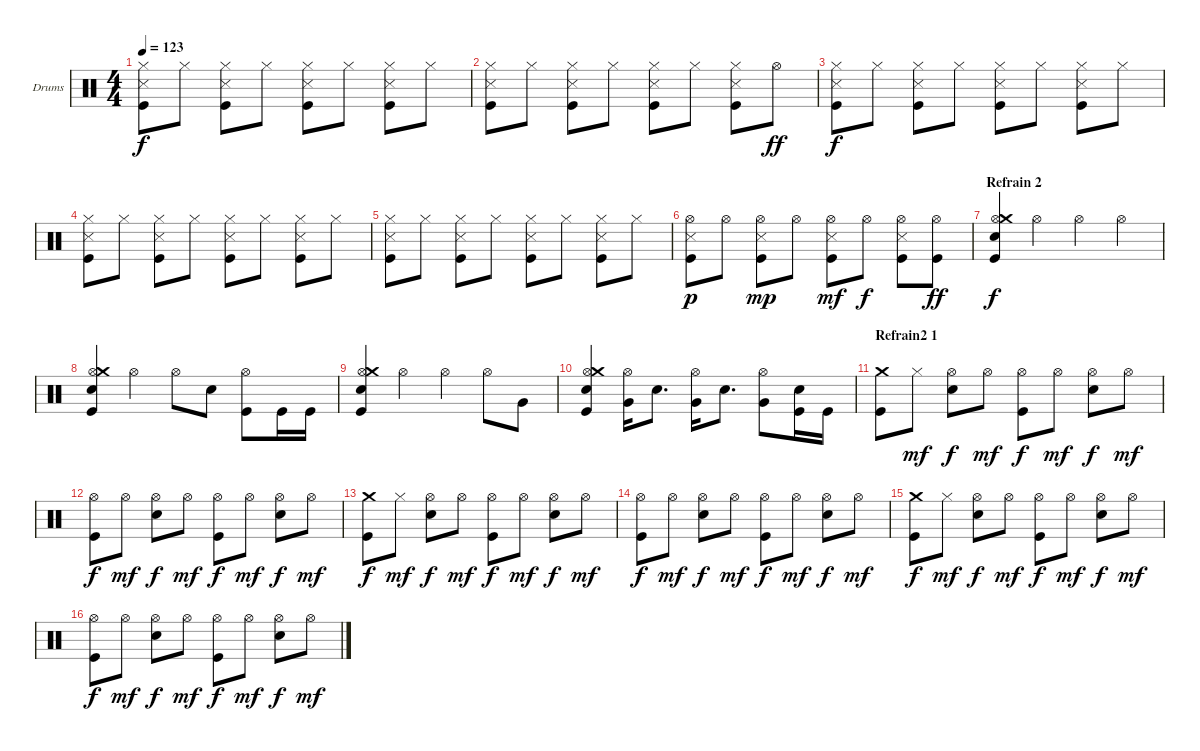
\bracketExtendMode groupsimilarinstruments
\firstSystemTrackNameOrientation horizontal
\otherSystemsTrackNameOrientation horizontal
\track ("Drumkit" "Drums") {instrument percussion}
\staff {score}
\articulation defaults
\ts (4 4)
\tempo 123
\clef neutral
\ks c
("Hi-Hat (closed)" "Snare (side stick) 3" "Kick (hit)").8{dy f} "Hi-Hat (closed)".8 ("Hi-Hat (closed)" "Snare (side stick) 3" "Kick (hit)").8 "Hi-Hat (closed)".8 ("Hi-Hat (closed)" "Snare (side stick) 3" "Kick (hit)").8 "Hi-Hat (closed)".8 ("Hi-Hat (closed)" "Snare (side stick) 3" "Kick (hit)").8 "Hi-Hat (closed)".8 |
("Hi-Hat (closed)" "Snare (side stick) 3" "Kick (hit)").8 "Hi-Hat (closed)".8 ("Hi-Hat (closed)" "Snare (side stick) 3" "Kick (hit)").8 "Hi-Hat (closed)".8 ("Hi-Hat (closed)" "Snare (side stick) 3" "Kick (hit)").8 "Hi-Hat (closed)".8 ("Hi-Hat (closed)" "Snare (side stick) 3" "Kick (hit)").8 "Hi-Hat (open)".8{dy ff} |
("Hi-Hat (closed)" "Snare (side stick) 3" "Kick (hit)").8{dy f} "Hi-Hat (closed)".8 ("Hi-Hat (closed)" "Snare (side stick) 3" "Kick (hit)").8 "Hi-Hat (closed)".8 ("Hi-Hat (closed)" "Snare (side stick) 3" "Kick (hit)").8 "Hi-Hat (closed)".8 ("Hi-Hat (closed)" "Snare (side stick) 3" "Kick (hit)").8 "Hi-Hat (closed)".8 |
("Hi-Hat (closed)" "Snare (side stick) 3" "Kick (hit)").8 "Hi-Hat (closed)".8 ("Hi-Hat (closed)" "Snare (side stick) 3" "Kick (hit)").8 "Hi-Hat (closed)".8 ("Hi-Hat (closed)" "Snare (side stick) 3" "Kick (hit)").8 "Hi-Hat (closed)".8 ("Hi-Hat (closed)" "Snare (side stick) 3" "Kick (hit)").8 "Hi-Hat (closed)".8 |
("Hi-Hat (closed)" "Snare (side stick) 3" "Kick (hit)").8 "Hi-Hat (closed)".8 ("Hi-Hat (closed)" "Snare (side stick) 3" "Kick (hit)").8 "Hi-Hat (closed)".8 ("Hi-Hat (closed)" "Snare (side stick) 3" "Kick (hit)").8 "Hi-Hat (closed)".8 ("Hi-Hat (closed)" "Snare (side stick) 3" "Kick (hit)").8 "Hi-Hat (closed)".8 |
("Hi-Hat (open)" "Snare (side stick) 3" "Kick (hit)").8{dy p} "Hi-Hat (open)".8 ("Hi-Hat (open)" "Snare (side stick) 3" "Kick (hit)").8{dy mp} "Hi-Hat (open)".8 ("Hi-Hat (open)" "Snare (side stick) 3" "Kick (hit)").8{dy mf} "Hi-Hat (open)".8{dy f} ("Hi-Hat (open)" "Snare (side stick) 3" "Kick (hit)").8 ("Hi-Hat (open)" "Kick (hit)").8{dy ff} |
\section ("" "Refrain 2")
("Hi-Hat (open)" "Crash medium (hit)" "Snare (hit) 2" "Kick (hit)").4{dy f} "Hi-Hat (open)".4 "Hi-Hat (open)".4 "Hi-Hat (open)".4 |
("Hi-Hat (open)" "Crash medium (hit)" "Snare (hit) 2" "Kick (hit)").4 "Hi-Hat (open)".4 "Hi-Hat (open)".8 "Snare (hit) 2".8 ("Hi-Hat (open)" "Kick (hit)").8 "Kick (hit)".16 "Kick (hit)".16 |
("Hi-Hat (open)" "Crash medium (hit)" "Snare (hit) 2" "Kick (hit)").4 "Hi-Hat (open)".4 "Hi-Hat (open)".4 "Hi-Hat (open)".8 "Very Low Tom (hit)".8 |
("Hi-Hat (open)" "Crash medium (hit)" "Snare (hit) 2" "Kick (hit)").4 ("Hi-Hat (open)" "Very Low Tom (hit)").16 "Snare (hit) 2".8{d} ("Hi-Hat (open)" "Very Low Tom (hit)").16 "Snare (hit) 2".8{d} ("Hi-Hat (open)" "Very Low Tom (hit)").8 ("Snare (hit) 2" "Kick (hit)").16 "Kick (hit)".16 |
\section ("" "Refrain2 1")
("Crash medium (hit)" "Kick (hit)").8 "Hi-Hat (closed)".8{dy mf} ("Hi-Hat (open)" "Snare (hit) 2").8{dy f} "Hi-Hat (open)".8{dy mf} ("Hi-Hat (open)" "Kick (hit)").8{dy f} "Hi-Hat (open)".8{dy mf} ("Hi-Hat (open)" "Snare (hit) 2").8{dy f} "Hi-Hat (open)".8{dy mf} |
("Hi-Hat (open)" "Kick (hit)").8{dy f} "Hi-Hat (open)".8{dy mf} ("Hi-Hat (open)" "Snare (hit) 2").8{dy f} "Hi-Hat (open)".8{dy mf} ("Hi-Hat (open)" "Kick (hit)").8{dy f} "Hi-Hat (open)".8{dy mf} ("Hi-Hat (open)" "Snare (hit) 2").8{dy f} "Hi-Hat (open)".8{dy mf} |
("Crash medium (hit)" "Kick (hit)").8{dy f} "Hi-Hat (closed)".8{dy mf} ("Hi-Hat (open)" "Snare (hit) 2").8{dy f} "Hi-Hat (open)".8{dy mf} ("Hi-Hat (open)" "Kick (hit)").8{dy f} "Hi-Hat (open)".8{dy mf} ("Hi-Hat (open)" "Snare (hit) 2").8{dy f} "Hi-Hat (open)".8{dy mf} |
("Hi-Hat (open)" "Kick (hit)").8{dy f} "Hi-Hat (open)".8{dy mf} ("Hi-Hat (open)" "Snare (hit) 2").8{dy f} "Hi-Hat (open)".8{dy mf} ("Hi-Hat (open)" "Kick (hit)").8{dy f} "Hi-Hat (open)".8{dy mf} ("Hi-Hat (open)" "Snare (hit) 2").8{dy f} "Hi-Hat (open)".8{dy mf} |
("Crash medium (hit)" "Kick (hit)").8{dy f} "Hi-Hat (closed)".8{dy mf} ("Hi-Hat (open)" "Snare (hit) 2").8{dy f} "Hi-Hat (open)".8{dy mf} ("Hi-Hat (open)" "Kick (hit)").8{dy f} "Hi-Hat (open)".8{dy mf} ("Hi-Hat (open)" "Snare (hit) 2").8{dy f} "Hi-Hat (open)".8{dy mf} |
("Hi-Hat (open)" "Kick (hit)").8{dy f} "Hi-Hat (open)".8{dy mf} ("Hi-Hat (open)" "Snare (hit) 2").8{dy f} "Hi-Hat (open)".8{dy mf} ("Hi-Hat (open)" "Kick (hit)").8{dy f} "Hi-Hat (open)".8{dy mf} ("Hi-Hat (open)" "Snare (hit) 2").8{dy f} "Hi-Hat (open)".8{dy mf}
